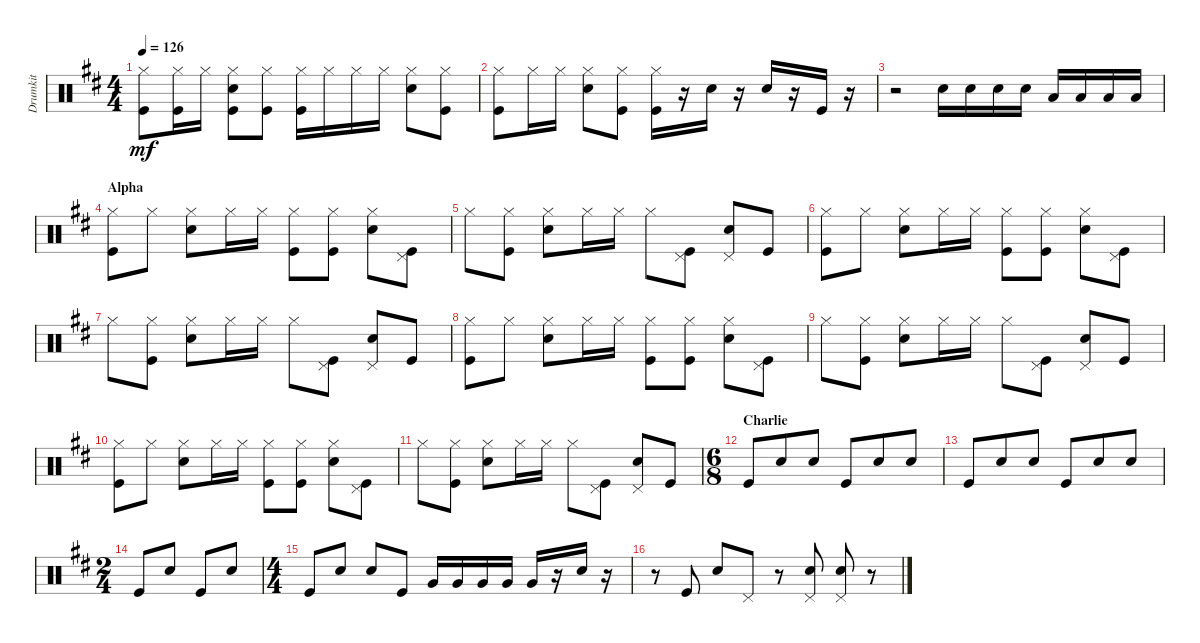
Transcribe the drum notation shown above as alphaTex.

\track ("Drumkit" "Drumkit") {instrument percussion}
\staff {score}
\articulation defaults
\ts (4 4)
\tempo 126
\clef neutral
\ks bminor
("Hi-Hat (closed)" "Kick (hit)").8{dy mf} ("Hi-Hat (closed)" "Kick (hit)").16 "Hi-Hat (closed)".16 ("Hi-Hat (closed)" "Kick (hit)" "Snare (hit) 2").8 ("Hi-Hat (closed)" "Kick (hit)").8 ("Hi-Hat (closed)" "Kick (hit)").16 "Hi-Hat (closed)".16 "Hi-Hat (closed)".16 "Hi-Hat (closed)".16 ("Hi-Hat (closed)" "Snare (hit) 2").8 ("Hi-Hat (closed)" "Kick (hit)").8 |
("Hi-Hat (closed)" "Kick (hit)").8 "Hi-Hat (closed)".16 "Hi-Hat (closed)".16 ("Hi-Hat (closed)" "Snare (hit) 2").8 ("Hi-Hat (closed)" "Kick (hit)").8 ("Hi-Hat (closed)" "Kick (hit)").16 r.16 "Snare (hit) 2".16 r.16 "Snare (hit) 2".16 r.16 "Kick (hit)".16 r.16 |
r.2 "Snare (hit) 2".16 "Snare (hit) 2".16 "Snare (hit) 2".16 "Snare (hit) 2".16 "Low Tom (hit)".16 "Low Tom (hit)".16 "Low Tom (hit)".16 "Low Tom (hit)".16 |
\section ("" "Alpha")
("Hi-Hat (closed)" "Kick (hit)").8 "Hi-Hat (closed)".8 ("Hi-Hat (closed)" "Snare (hit) 2").8 "Hi-Hat (closed)".16 "Hi-Hat (closed)".16 ("Hi-Hat (closed)" "Kick (hit)").8 ("Hi-Hat (closed)" "Kick (hit)").8 ("Hi-Hat (closed)" "Snare (hit) 2").8 ("Kick (hit)" "Pedal Hi-Hat (hit)").8 |
"Hi-Hat (closed)".8 ("Hi-Hat (closed)" "Kick (hit)").8 ("Hi-Hat (closed)" "Snare (hit) 2").8 "Hi-Hat (closed)".16 "Hi-Hat (closed)".16 "Hi-Hat (closed)".8 ("Kick (hit)" "Pedal Hi-Hat (hit)").8 ("Snare (hit) 2" "Pedal Hi-Hat (hit)").8 "Kick (hit)".8 |
("Hi-Hat (closed)" "Kick (hit)").8 "Hi-Hat (closed)".8 ("Hi-Hat (closed)" "Snare (hit) 2").8 "Hi-Hat (closed)".16 "Hi-Hat (closed)".16 ("Hi-Hat (closed)" "Kick (hit)").8 ("Hi-Hat (closed)" "Kick (hit)").8 ("Hi-Hat (closed)" "Snare (hit) 2").8 ("Kick (hit)" "Pedal Hi-Hat (hit)").8 |
"Hi-Hat (closed)".8 ("Hi-Hat (closed)" "Kick (hit)").8 ("Hi-Hat (closed)" "Snare (hit) 2").8 "Hi-Hat (closed)".16 "Hi-Hat (closed)".16 "Hi-Hat (closed)".8 ("Kick (hit)" "Pedal Hi-Hat (hit)").8 ("Snare (hit) 2" "Pedal Hi-Hat (hit)").8 "Kick (hit)".8 |
("Hi-Hat (closed)" "Kick (hit)").8 "Hi-Hat (closed)".8 ("Hi-Hat (closed)" "Snare (hit) 2").8 "Hi-Hat (closed)".16 "Hi-Hat (closed)".16 ("Hi-Hat (closed)" "Kick (hit)").8 ("Hi-Hat (closed)" "Kick (hit)").8 ("Hi-Hat (closed)" "Snare (hit) 2").8 ("Kick (hit)" "Pedal Hi-Hat (hit)").8 |
"Hi-Hat (closed)".8 ("Hi-Hat (closed)" "Kick (hit)").8 ("Hi-Hat (closed)" "Snare (hit) 2").8 "Hi-Hat (closed)".16 "Hi-Hat (closed)".16 "Hi-Hat (closed)".8 ("Kick (hit)" "Pedal Hi-Hat (hit)").8 ("Snare (hit) 2" "Pedal Hi-Hat (hit)").8 "Kick (hit)".8 |
("Hi-Hat (closed)" "Kick (hit)").8 "Hi-Hat (closed)".8 ("Hi-Hat (closed)" "Snare (hit) 2").8 "Hi-Hat (closed)".16 "Hi-Hat (closed)".16 ("Hi-Hat (closed)" "Kick (hit)").8 ("Hi-Hat (closed)" "Kick (hit)").8 ("Hi-Hat (closed)" "Snare (hit) 2").8 ("Kick (hit)" "Pedal Hi-Hat (hit)").8 |
"Hi-Hat (closed)".8 ("Hi-Hat (closed)" "Kick (hit)").8 ("Hi-Hat (closed)" "Snare (hit) 2").8 "Hi-Hat (closed)".16 "Hi-Hat (closed)".16 "Hi-Hat (closed)".8 ("Kick (hit)" "Pedal Hi-Hat (hit)").8 ("Snare (hit) 2" "Pedal Hi-Hat (hit)").8 "Kick (hit)".8 |
\ts (6 8)
\section ("" "Charlie")
"Kick (hit)".8 "Snare (hit) 2".8 "Snare (hit) 2".8 "Kick (hit)".8 "Snare (hit) 2".8 "Snare (hit) 2".8 |
"Kick (hit)".8 "Snare (hit) 2".8 "Snare (hit) 2".8 "Kick (hit)".8 "Snare (hit) 2".8 "Snare (hit) 2".8 |
\ts (2 4)
"Kick (hit)".8 "Snare (hit) 2".8 "Kick (hit)".8 "Snare (hit) 2".8 |
\ts (4 4)
"Kick (hit)".8 "Snare (hit) 2".8 "Snare (hit) 2".8 "Kick (hit)".8 "Very Low Tom (hit)".16 "Very Low Tom (hit)".16 "Very Low Tom (hit)".16 "Very Low Tom (hit)".16 "Very Low Tom (hit)".16 r.16 "Snare (hit) 2".16 r.16 |
r.8 "Kick (hit)".8 "Snare (hit) 2".8 "Pedal Hi-Hat (hit)".8 r.8 ("Snare (hit) 2" "Pedal Hi-Hat (hit)").8 ("Snare (hit) 2" "Pedal Hi-Hat (hit)").8 r.8
